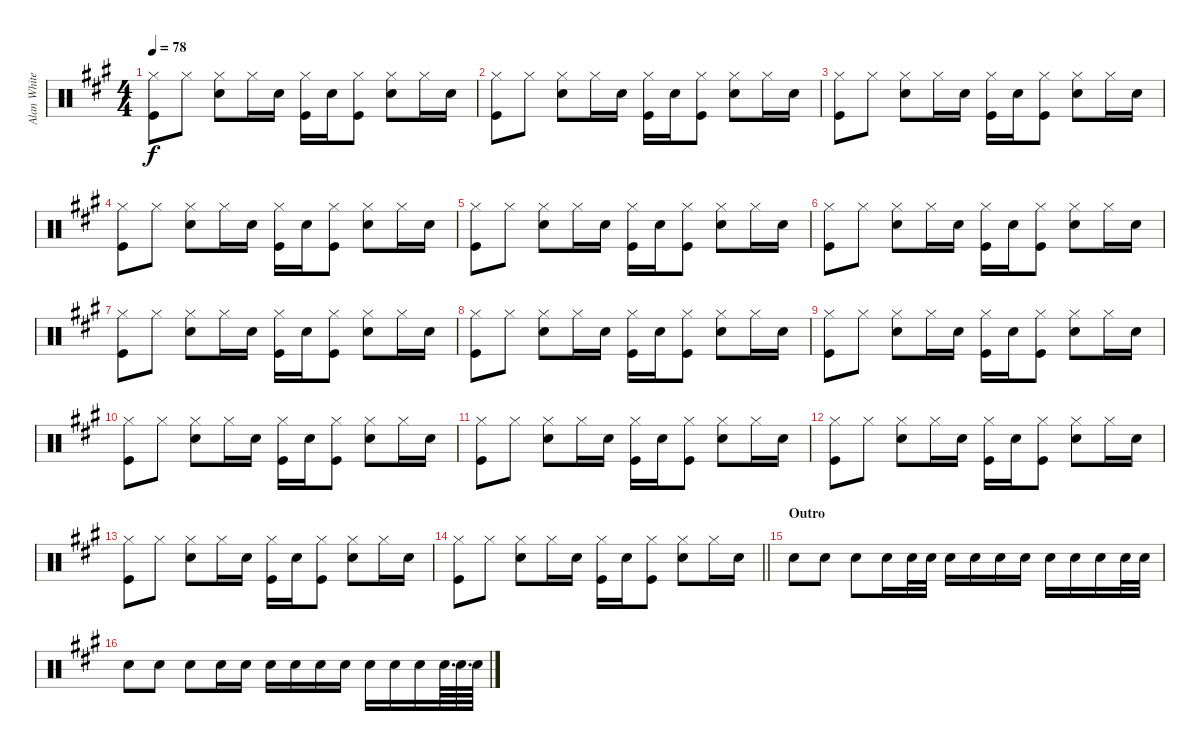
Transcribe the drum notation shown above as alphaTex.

\track ("Alan White (Drums)" "Alan White") {instrument percussion}
\staff {score}
\articulation defaults
\ts (4 4)
\tempo 78
\clef neutral
\ks a
("Hi-Hat (closed)" "Kick (hit)").8{dy f} "Hi-Hat (closed)".8 ("Hi-Hat (closed)" "Snare (hit) 2").8 "Hi-Hat (closed)".16 "Snare (hit) 2".16 ("Hi-Hat (closed)" "Kick (hit)").16 "Snare (hit) 2".16 ("Hi-Hat (closed)" "Kick (hit)").8 ("Hi-Hat (closed)" "Snare (hit) 2").8 "Hi-Hat (closed)".16 "Snare (hit) 2".16 |
("Hi-Hat (closed)" "Kick (hit)").8 "Hi-Hat (closed)".8 ("Hi-Hat (closed)" "Snare (hit) 2").8 "Hi-Hat (closed)".16 "Snare (hit) 2".16 ("Hi-Hat (closed)" "Kick (hit)").16 "Snare (hit) 2".16 ("Hi-Hat (closed)" "Kick (hit)").8 ("Hi-Hat (closed)" "Snare (hit) 2").8 "Hi-Hat (closed)".16 "Snare (hit) 2".16 |
("Hi-Hat (closed)" "Kick (hit)").8 "Hi-Hat (closed)".8 ("Hi-Hat (closed)" "Snare (hit) 2").8 "Hi-Hat (closed)".16 "Snare (hit) 2".16 ("Hi-Hat (closed)" "Kick (hit)").16 "Snare (hit) 2".16 ("Hi-Hat (closed)" "Kick (hit)").8 ("Hi-Hat (closed)" "Snare (hit) 2").8 "Hi-Hat (closed)".16 "Snare (hit) 2".16 |
("Hi-Hat (closed)" "Kick (hit)").8 "Hi-Hat (closed)".8 ("Hi-Hat (closed)" "Snare (hit) 2").8 "Hi-Hat (closed)".16 "Snare (hit) 2".16 ("Hi-Hat (closed)" "Kick (hit)").16 "Snare (hit) 2".16 ("Hi-Hat (closed)" "Kick (hit)").8 ("Hi-Hat (closed)" "Snare (hit) 2").8 "Hi-Hat (closed)".16 "Snare (hit) 2".16 |
("Hi-Hat (closed)" "Kick (hit)").8 "Hi-Hat (closed)".8 ("Hi-Hat (closed)" "Snare (hit) 2").8 "Hi-Hat (closed)".16 "Snare (hit) 2".16 ("Hi-Hat (closed)" "Kick (hit)").16 "Snare (hit) 2".16 ("Hi-Hat (closed)" "Kick (hit)").8 ("Hi-Hat (closed)" "Snare (hit) 2").8 "Hi-Hat (closed)".16 "Snare (hit) 2".16 |
("Hi-Hat (closed)" "Kick (hit)").8 "Hi-Hat (closed)".8 ("Hi-Hat (closed)" "Snare (hit) 2").8 "Hi-Hat (closed)".16 "Snare (hit) 2".16 ("Hi-Hat (closed)" "Kick (hit)").16 "Snare (hit) 2".16 ("Hi-Hat (closed)" "Kick (hit)").8 ("Hi-Hat (closed)" "Snare (hit) 2").8 "Hi-Hat (closed)".16 "Snare (hit) 2".16 |
("Hi-Hat (closed)" "Kick (hit)").8 "Hi-Hat (closed)".8 ("Hi-Hat (closed)" "Snare (hit) 2").8 "Hi-Hat (closed)".16 "Snare (hit) 2".16 ("Hi-Hat (closed)" "Kick (hit)").16 "Snare (hit) 2".16 ("Hi-Hat (closed)" "Kick (hit)").8 ("Hi-Hat (closed)" "Snare (hit) 2").8 "Hi-Hat (closed)".16 "Snare (hit) 2".16 |
("Hi-Hat (closed)" "Kick (hit)").8 "Hi-Hat (closed)".8 ("Hi-Hat (closed)" "Snare (hit) 2").8 "Hi-Hat (closed)".16 "Snare (hit) 2".16 ("Hi-Hat (closed)" "Kick (hit)").16 "Snare (hit) 2".16 ("Hi-Hat (closed)" "Kick (hit)").8 ("Hi-Hat (closed)" "Snare (hit) 2").8 "Hi-Hat (closed)".16 "Snare (hit) 2".16 |
("Hi-Hat (closed)" "Kick (hit)").8 "Hi-Hat (closed)".8 ("Hi-Hat (closed)" "Snare (hit) 2").8 "Hi-Hat (closed)".16 "Snare (hit) 2".16 ("Hi-Hat (closed)" "Kick (hit)").16 "Snare (hit) 2".16 ("Hi-Hat (closed)" "Kick (hit)").8 ("Hi-Hat (closed)" "Snare (hit) 2").8 "Hi-Hat (closed)".16 "Snare (hit) 2".16 |
("Hi-Hat (closed)" "Kick (hit)").8 "Hi-Hat (closed)".8 ("Hi-Hat (closed)" "Snare (hit) 2").8 "Hi-Hat (closed)".16 "Snare (hit) 2".16 ("Hi-Hat (closed)" "Kick (hit)").16 "Snare (hit) 2".16 ("Hi-Hat (closed)" "Kick (hit)").8 ("Hi-Hat (closed)" "Snare (hit) 2").8 "Hi-Hat (closed)".16 "Snare (hit) 2".16 |
("Hi-Hat (closed)" "Kick (hit)").8 "Hi-Hat (closed)".8 ("Hi-Hat (closed)" "Snare (hit) 2").8 "Hi-Hat (closed)".16 "Snare (hit) 2".16 ("Hi-Hat (closed)" "Kick (hit)").16 "Snare (hit) 2".16 ("Hi-Hat (closed)" "Kick (hit)").8 ("Hi-Hat (closed)" "Snare (hit) 2").8 "Hi-Hat (closed)".16 "Snare (hit) 2".16 |
("Hi-Hat (closed)" "Kick (hit)").8 "Hi-Hat (closed)".8 ("Hi-Hat (closed)" "Snare (hit) 2").8 "Hi-Hat (closed)".16 "Snare (hit) 2".16 ("Hi-Hat (closed)" "Kick (hit)").16 "Snare (hit) 2".16 ("Hi-Hat (closed)" "Kick (hit)").8 ("Hi-Hat (closed)" "Snare (hit) 2").8 "Hi-Hat (closed)".16 "Snare (hit) 2".16 |
("Hi-Hat (closed)" "Kick (hit)").8 "Hi-Hat (closed)".8 ("Hi-Hat (closed)" "Snare (hit) 2").8 "Hi-Hat (closed)".16 "Snare (hit) 2".16 ("Hi-Hat (closed)" "Kick (hit)").16 "Snare (hit) 2".16 ("Hi-Hat (closed)" "Kick (hit)").8 ("Hi-Hat (closed)" "Snare (hit) 2").8 "Hi-Hat (closed)".16 "Snare (hit) 2".16 |
\barLineRight lightlight
("Hi-Hat (closed)" "Kick (hit)").8 "Hi-Hat (closed)".8 ("Hi-Hat (closed)" "Snare (hit) 2").8 "Hi-Hat (closed)".16 "Snare (hit) 2".16 ("Hi-Hat (closed)" "Kick (hit)").16 "Snare (hit) 2".16 ("Hi-Hat (closed)" "Kick (hit)").8 ("Hi-Hat (closed)" "Snare (hit) 2").8 "Hi-Hat (closed)".16 "Snare (hit) 2".16 |
\section ("" "Outro")
"Snare (hit) 2".8 "Snare (hit) 2".8 "Snare (hit) 2".8 "Snare (hit) 2".16 "Snare (hit) 2".32 "Snare (hit) 2".32 "Snare (hit) 2".16 "Snare (hit) 2".16 "Snare (hit) 2".16 "Snare (hit) 2".16 "Snare (hit) 2".16 "Snare (hit) 2".16 "Snare (hit) 2".16 "Snare (hit) 2".32 "Snare (hit) 2".32 |
"Snare (hit) 2".8 "Snare (hit) 2".8 "Snare (hit) 2".8 "Snare (hit) 2".16 "Snare (hit) 2".16 "Snare (hit) 2".16 "Snare (hit) 2".16 "Snare (hit) 2".16 "Snare (hit) 2".16 "Snare (hit) 2".16 "Snare (hit) 2".16 "Snare (hit) 2".16 "Snare (hit) 2".64{d} "Snare (hit) 2".64{d} "Snare (hit) 2".64
